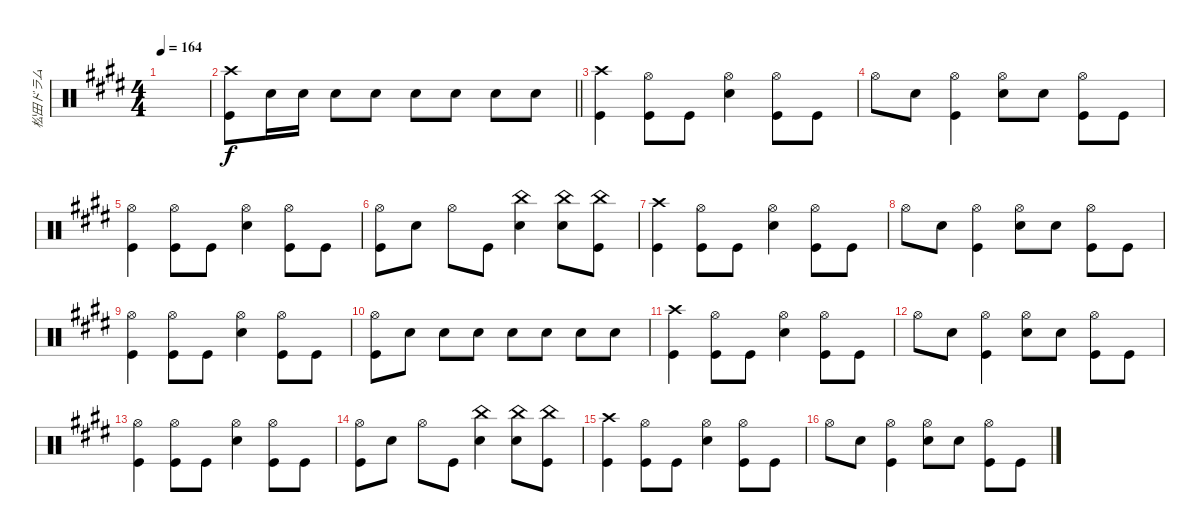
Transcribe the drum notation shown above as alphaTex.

\track ("松田ドラム" "松田ドラム") {instrument percussion}
\staff {score}
\articulation defaults
\ts (4 4)
\tempo 164
\clef neutral
\ks e
|
\barLineRight lightlight
("Crash high (hit)" "Kick (hit)").8 "Snare (hit) 2".16 "Snare (hit) 2".16 "Snare (hit) 2".8 "Snare (hit) 2".8 "Snare (hit) 2".8 "Snare (hit) 2".8 "Snare (hit) 2".8 "Snare (hit) 2".8 |
("Crash high (hit)" "Kick (hit)").4 ("Hi-Hat (open)" "Kick (hit)").8 "Kick (hit)".8 ("Hi-Hat (open)" "Snare (hit) 2").4 ("Hi-Hat (open)" "Kick (hit)").8 "Kick (hit)".8 |
"Hi-Hat (open)".8 "Snare (hit) 2".8 ("Hi-Hat (open)" "Kick (hit)").4 ("Hi-Hat (open)" "Snare (hit) 2").8 "Snare (hit) 2".8 ("Hi-Hat (open)" "Kick (hit)").8 "Kick (hit)".8 |
("Hi-Hat (open)" "Kick (hit)").4 ("Hi-Hat (open)" "Kick (hit)").8 "Kick (hit)".8 ("Hi-Hat (open)" "Snare (hit) 2").4 ("Hi-Hat (open)" "Kick (hit)").8 "Kick (hit)".8 |
("Hi-Hat (open)" "Kick (hit)").8 "Snare (hit) 2".8 "Hi-Hat (open)".8 "Kick (hit)".8 ("China (hit)" "Snare (hit) 2").4 ("China (hit)" "Snare (hit) 2").8 ("China (hit)" "Kick (hit)").8 |
("Crash high (hit)" "Kick (hit)").4 ("Hi-Hat (open)" "Kick (hit)").8 "Kick (hit)".8 ("Hi-Hat (open)" "Snare (hit) 2").4 ("Hi-Hat (open)" "Kick (hit)").8 "Kick (hit)".8 |
"Hi-Hat (open)".8 "Snare (hit) 2".8 ("Hi-Hat (open)" "Kick (hit)").4 ("Hi-Hat (open)" "Snare (hit) 2").8 "Snare (hit) 2".8 ("Hi-Hat (open)" "Kick (hit)").8 "Kick (hit)".8 |
("Hi-Hat (open)" "Kick (hit)").4 ("Hi-Hat (open)" "Kick (hit)").8 "Kick (hit)".8 ("Hi-Hat (open)" "Snare (hit) 2").4 ("Hi-Hat (open)" "Kick (hit)").8 "Kick (hit)".8 |
("Hi-Hat (open)" "Kick (hit)").8 "Snare (hit) 2".8 "Snare (hit) 2".8 "Snare (hit) 2".8 "Snare (hit) 2".8 "Snare (hit) 2".8 "Snare (hit) 2".8 "Snare (hit) 2".8 |
("Crash high (hit)" "Kick (hit)").4 ("Hi-Hat (open)" "Kick (hit)").8 "Kick (hit)".8 ("Hi-Hat (open)" "Snare (hit) 2").4 ("Hi-Hat (open)" "Kick (hit)").8 "Kick (hit)".8 |
"Hi-Hat (open)".8 "Snare (hit) 2".8 ("Hi-Hat (open)" "Kick (hit)").4 ("Hi-Hat (open)" "Snare (hit) 2").8 "Snare (hit) 2".8 ("Hi-Hat (open)" "Kick (hit)").8 "Kick (hit)".8 |
("Hi-Hat (open)" "Kick (hit)").4 ("Hi-Hat (open)" "Kick (hit)").8 "Kick (hit)".8 ("Hi-Hat (open)" "Snare (hit) 2").4 ("Hi-Hat (open)" "Kick (hit)").8 "Kick (hit)".8 |
("Hi-Hat (open)" "Kick (hit)").8 "Snare (hit) 2".8 "Hi-Hat (open)".8 "Kick (hit)".8 ("China (hit)" "Snare (hit) 2").4 ("China (hit)" "Snare (hit) 2").8 ("China (hit)" "Kick (hit)").8 |
("Crash high (hit)" "Kick (hit)").4 ("Hi-Hat (open)" "Kick (hit)").8 "Kick (hit)".8 ("Hi-Hat (open)" "Snare (hit) 2").4 ("Hi-Hat (open)" "Kick (hit)").8 "Kick (hit)".8 |
"Hi-Hat (open)".8 "Snare (hit) 2".8 ("Hi-Hat (open)" "Kick (hit)").4 ("Hi-Hat (open)" "Snare (hit) 2").8 "Snare (hit) 2".8 ("Hi-Hat (open)" "Kick (hit)").8 "Kick (hit)".8
